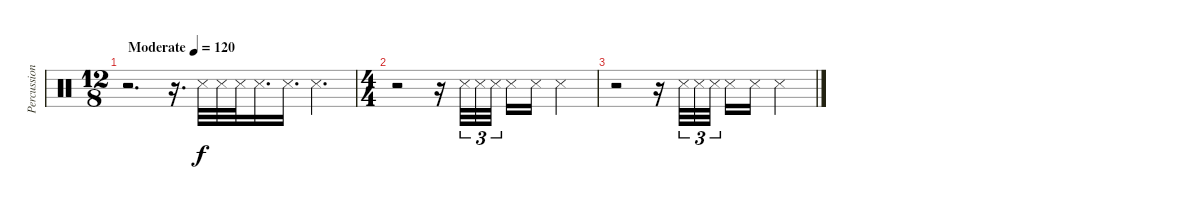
\track ("Percussions" "Percussion") {instrument percussion}
\staff {score}
\articulation defaults
\ts (12 8)
\tempo (120 "Moderate")
\clef neutral
\ks c
r.2{d dy f} r.16{d} "Snare (side stick) 3".32 "Snare (side stick) 3".32 "Snare (side stick) 3".32 "Snare (side stick) 3".16{d} "Snare (side stick) 3".16{d} "Snare (side stick) 3".4{d} |
\ts (4 4)
r.2 r.16 "Snare (side stick) 3".32{tu (3 2)} "Snare (side stick) 3".32{tu (3 2)} "Snare (side stick) 3".32{tu (3 2) beam splitsecondary} "Snare (side stick) 3".16 "Snare (side stick) 3".16 "Snare (side stick) 3".4 |
r.2 r.16 "Snare (side stick) 3".32{tu (3 2)} "Snare (side stick) 3".32{tu (3 2)} "Snare (side stick) 3".32{tu (3 2) beam splitsecondary} "Snare (side stick) 3".16 "Snare (side stick) 3".16 "Snare (side stick) 3".4
